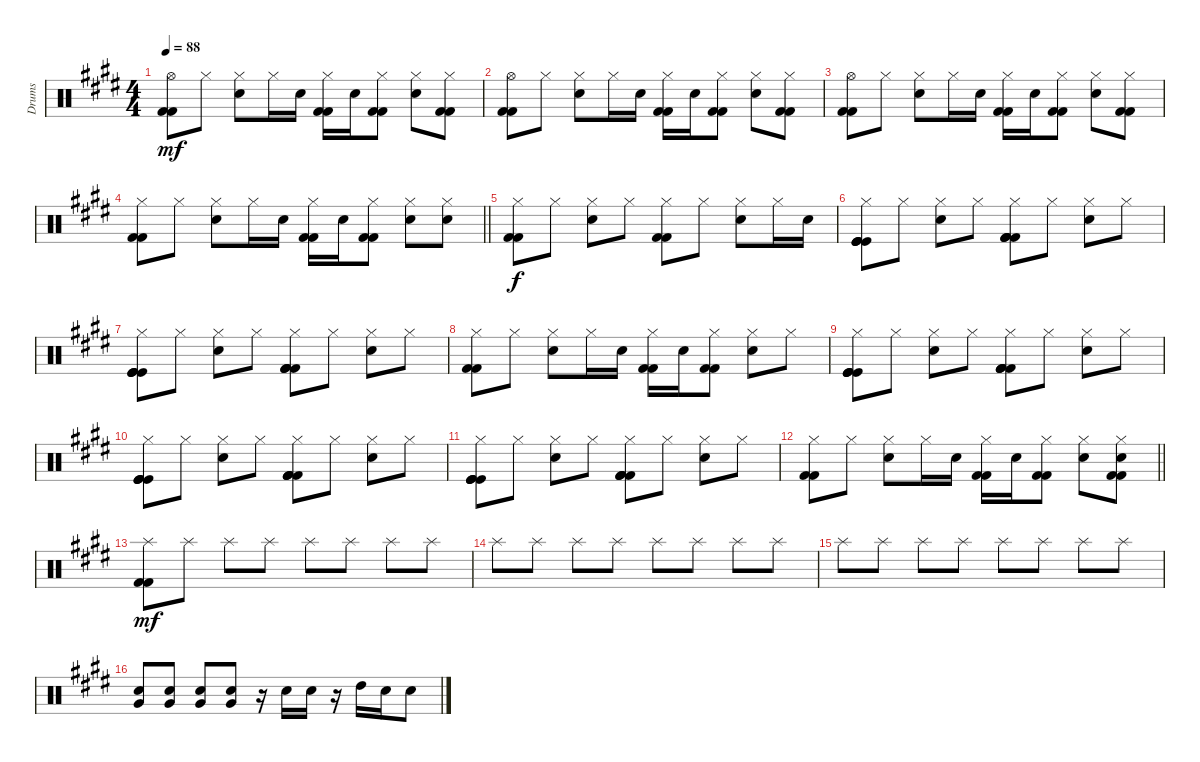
\track ("Drums" "Drums") {instrument percussion}
\staff {score}
\articulation defaults
\ts (4 4)
\tempo 88
\clef neutral
\ks e
("Hi-Hat (open)" "Kick (hit) 2" "Kick (hit) 2").8{dy mf} "Hi-Hat (closed)".8 ("Hi-Hat (closed)" "Snare (hit) 2").8 "Hi-Hat (closed)".16 "Snare (hit) 2".16 ("Hi-Hat (closed)" "Kick (hit) 2" "Kick (hit) 2").16 "Snare (hit) 2".16 ("Hi-Hat (closed)" "Kick (hit) 2" "Kick (hit) 2").8 ("Hi-Hat (closed)" "Snare (hit) 2").8 ("Hi-Hat (closed)" "Kick (hit) 2" "Kick (hit) 2").8 |
("Hi-Hat (open)" "Kick (hit) 2" "Kick (hit) 2").8 "Hi-Hat (closed)".8 ("Hi-Hat (closed)" "Snare (hit) 2").8 "Hi-Hat (closed)".16 "Snare (hit) 2".16 ("Hi-Hat (closed)" "Kick (hit) 2" "Kick (hit) 2").16 "Snare (hit) 2".16 ("Hi-Hat (closed)" "Kick (hit) 2" "Kick (hit) 2").8 ("Hi-Hat (closed)" "Snare (hit) 2").8 ("Hi-Hat (closed)" "Kick (hit) 2" "Kick (hit) 2").8 |
("Hi-Hat (open)" "Kick (hit) 2" "Kick (hit) 2").8 "Hi-Hat (closed)".8 ("Hi-Hat (closed)" "Snare (hit) 2").8 "Hi-Hat (closed)".16 "Snare (hit) 2".16 ("Hi-Hat (closed)" "Kick (hit) 2" "Kick (hit) 2").16 "Snare (hit) 2".16 ("Hi-Hat (closed)" "Kick (hit) 2" "Kick (hit) 2").8 ("Hi-Hat (closed)" "Snare (hit) 2").8 ("Hi-Hat (closed)" "Kick (hit) 2" "Kick (hit) 2").8 |
\barLineRight lightlight
("Hi-Hat (closed)" "Kick (hit) 2" "Kick (hit) 2").8 "Hi-Hat (closed)".8 ("Hi-Hat (closed)" "Snare (hit) 2").8 "Hi-Hat (closed)".16 "Snare (hit) 2".16 ("Hi-Hat (closed)" "Kick (hit) 2" "Kick (hit) 2").16 "Snare (hit) 2".16 ("Hi-Hat (closed)" "Kick (hit) 2" "Kick (hit) 2").8 ("Hi-Hat (closed)" "Snare (hit) 2").8 ("Hi-Hat (closed)" "Snare (hit) 2").8 |
("Hi-Hat (closed)" "Kick (hit) 2" "Kick (hit) 2").8{dy f} "Hi-Hat (closed)".8 ("Hi-Hat (closed)" "Snare (hit) 2").8 "Hi-Hat (closed)".8 ("Hi-Hat (closed)" "Kick (hit) 2" "Kick (hit) 2").8 "Hi-Hat (closed)".8 ("Hi-Hat (closed)" "Snare (hit) 2").8 "Hi-Hat (closed)".16 "Snare (hit) 2".16 |
("Hi-Hat (closed)" "Kick (hit)" "Kick (hit)" "Kick (hit)" "Kick (hit)").8 "Hi-Hat (closed)".8 ("Hi-Hat (closed)" "Snare (hit) 2").8 "Hi-Hat (closed)".8 ("Hi-Hat (closed)" "Kick (hit) 2" "Kick (hit) 2" "Kick (hit) 2" "Kick (hit) 2").8 "Hi-Hat (closed)".8 ("Hi-Hat (closed)" "Snare (hit) 2").8 "Hi-Hat (closed)".8 |
("Hi-Hat (closed)" "Kick (hit)" "Kick (hit)" "Kick (hit)" "Kick (hit)").8 "Hi-Hat (closed)".8 ("Hi-Hat (closed)" "Snare (hit) 2").8 "Hi-Hat (closed)".8 ("Hi-Hat (closed)" "Kick (hit) 2" "Kick (hit) 2" "Kick (hit) 2" "Kick (hit) 2").8 "Hi-Hat (closed)".8 ("Hi-Hat (closed)" "Snare (hit) 2").8 "Hi-Hat (closed)".8 |
("Hi-Hat (closed)" "Kick (hit) 2" "Kick (hit) 2").8 "Hi-Hat (closed)".8 ("Hi-Hat (closed)" "Snare (hit) 2").8 "Hi-Hat (closed)".16 "Snare (hit) 2".16 ("Hi-Hat (closed)" "Kick (hit) 2" "Kick (hit) 2").16 "Snare (hit) 2".16 ("Hi-Hat (closed)" "Kick (hit) 2" "Kick (hit) 2").8 ("Hi-Hat (closed)" "Snare (hit) 2").8 "Hi-Hat (closed)".8 |
("Hi-Hat (closed)" "Kick (hit)" "Kick (hit)" "Kick (hit)" "Kick (hit)").8 "Hi-Hat (closed)".8 ("Hi-Hat (closed)" "Snare (hit) 2").8 "Hi-Hat (closed)".8 ("Hi-Hat (closed)" "Kick (hit) 2" "Kick (hit) 2" "Kick (hit) 2" "Kick (hit) 2").8 "Hi-Hat (closed)".8 ("Hi-Hat (closed)" "Snare (hit) 2").8 "Hi-Hat (closed)".8 |
("Hi-Hat (closed)" "Kick (hit)" "Kick (hit)" "Kick (hit)" "Kick (hit)").8 "Hi-Hat (closed)".8 ("Hi-Hat (closed)" "Snare (hit) 2").8 "Hi-Hat (closed)".8 ("Hi-Hat (closed)" "Kick (hit) 2" "Kick (hit) 2" "Kick (hit) 2" "Kick (hit) 2").8 "Hi-Hat (closed)".8 ("Hi-Hat (closed)" "Snare (hit) 2").8 "Hi-Hat (closed)".8 |
("Hi-Hat (closed)" "Kick (hit)" "Kick (hit)" "Kick (hit)" "Kick (hit)").8 "Hi-Hat (closed)".8 ("Hi-Hat (closed)" "Snare (hit) 2").8 "Hi-Hat (closed)".8 ("Hi-Hat (closed)" "Kick (hit) 2" "Kick (hit) 2" "Kick (hit) 2" "Kick (hit) 2").8 "Hi-Hat (closed)".8 ("Hi-Hat (closed)" "Snare (hit) 2").8 "Hi-Hat (closed)".8 |
\barLineRight lightlight
("Hi-Hat (closed)" "Kick (hit) 2" "Kick (hit) 2").8 "Hi-Hat (closed)".8 ("Hi-Hat (closed)" "Snare (hit) 2").8 "Hi-Hat (closed)".16 "Snare (hit) 2".16 ("Hi-Hat (closed)" "Kick (hit) 2" "Kick (hit) 2").16 "Snare (hit) 2".16 ("Hi-Hat (closed)" "Kick (hit) 2" "Kick (hit) 2").8 ("Hi-Hat (closed)" "Snare (hit) 2").8 ("Hi-Hat (closed)" "Snare (hit) 2" "Kick (hit) 2" "Kick (hit) 2").8 |
("Splash (hit)" "Kick (hit) 2" "Kick (hit) 2").8{dy mf} "Splash (hit)".8 "Splash (hit)".8 "Splash (hit)".8 "Splash (hit)".8 "Splash (hit)".8 "Splash (hit)".8 "Splash (hit)".8 |
"Splash (hit)".8 "Splash (hit)".8 "Splash (hit)".8 "Splash (hit)".8 "Splash (hit)".8 "Splash (hit)".8 "Splash (hit)".8 "Splash (hit)".8 |
"Splash (hit)".8 "Splash (hit)".8 "Splash (hit)".8 "Splash (hit)".8 "Splash (hit)".8 "Splash (hit)".8 "Splash (hit)".8 "Splash (hit)".8 |
("Snare (hit) 2" "Very Low Tom (hit)").8 ("Snare (hit) 2" "Very Low Tom (hit)").8 ("Snare (hit) 2" "Very Low Tom (hit)").8 ("Snare (hit) 2" "Very Low Tom (hit)").8 r.16 "Snare (hit) 2".16 "Snare (hit) 2".16 r.16 "High Tom (hit)".16 "Snare (hit) 2".16 "Snare (hit) 2".8
